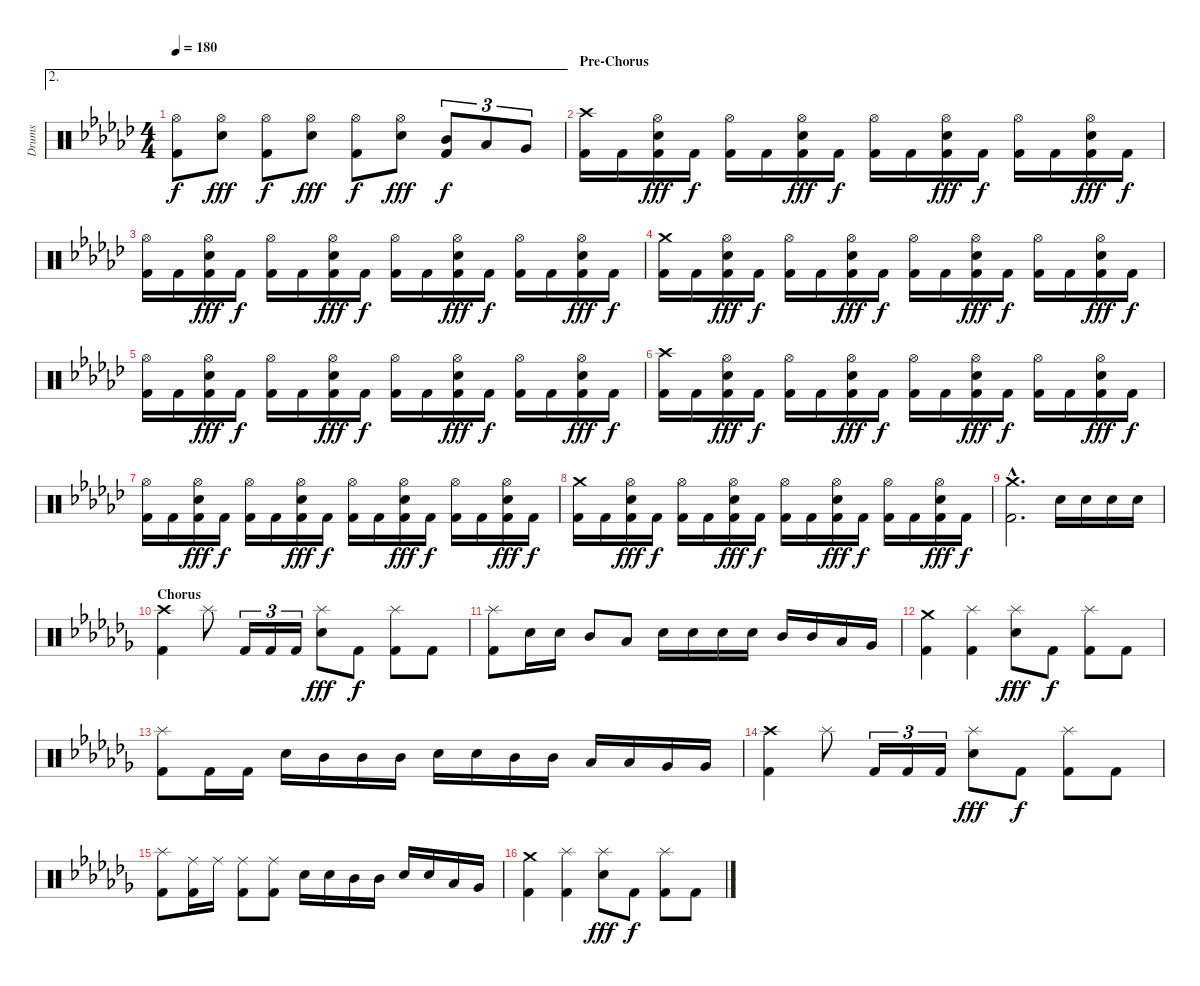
\track ("Drums" "Drums") {instrument percussion}
\staff {score}
\articulation defaults
\ae 2
\ts (4 4)
\tempo 180
\clef neutral
\ks ebminor
("Hi-Hat (open)" "Kick (hit) 2").8{dy f} ("Hi-Hat (open)" "Snare (hit) 2").8{dy fff} ("Hi-Hat (open)" "Kick (hit) 2").8{dy f} ("Hi-Hat (open)" "Snare (hit) 2").8{dy fff} ("Hi-Hat (open)" "Kick (hit) 2").8{dy f} ("Hi-Hat (open)" "Snare (hit) 2").8{dy fff} ("Mid Tom (hit)" "Kick (hit) 2").8{tu (3 2) dy f} "Low Tom (hit)".8{tu (3 2)} "Very Low Tom (hit)".8{tu (3 2)} |
\section ("" "Pre-Chorus")
("Crash high (hit)" "Kick (hit) 2").16 "Kick (hit) 2".16 ("Hi-Hat (open)" "Snare (hit) 2" "Kick (hit) 2").16{dy fff} "Kick (hit) 2".16{dy f} ("Hi-Hat (open)" "Kick (hit) 2").16 "Kick (hit) 2".16 ("Hi-Hat (open)" "Snare (hit) 2" "Kick (hit) 2").16{dy fff} "Kick (hit) 2".16{dy f} ("Hi-Hat (open)" "Kick (hit) 2").16 "Kick (hit) 2".16 ("Hi-Hat (open)" "Snare (hit) 2" "Kick (hit) 2").16{dy fff} "Kick (hit) 2".16{dy f} ("Hi-Hat (open)" "Kick (hit) 2").16 "Kick (hit) 2".16 ("Hi-Hat (open)" "Snare (hit) 2" "Kick (hit) 2").16{dy fff} "Kick (hit) 2".16{dy f} |
("Hi-Hat (open)" "Kick (hit) 2").16 "Kick (hit) 2".16 ("Hi-Hat (open)" "Snare (hit) 2" "Kick (hit) 2").16{dy fff} "Kick (hit) 2".16{dy f} ("Hi-Hat (open)" "Kick (hit) 2").16 "Kick (hit) 2".16 ("Hi-Hat (open)" "Snare (hit) 2" "Kick (hit) 2").16{dy fff} "Kick (hit) 2".16{dy f} ("Hi-Hat (open)" "Kick (hit) 2").16 "Kick (hit) 2".16 ("Hi-Hat (open)" "Snare (hit) 2" "Kick (hit) 2").16{dy fff} "Kick (hit) 2".16{dy f} ("Hi-Hat (open)" "Kick (hit) 2").16 "Kick (hit) 2".16 ("Hi-Hat (open)" "Snare (hit) 2" "Kick (hit) 2").16{dy fff} "Kick (hit) 2".16{dy f} |
("Crash medium (hit)" "Kick (hit) 2").16 "Kick (hit) 2".16 ("Hi-Hat (open)" "Snare (hit) 2" "Kick (hit) 2").16{dy fff} "Kick (hit) 2".16{dy f} ("Hi-Hat (open)" "Kick (hit) 2").16 "Kick (hit) 2".16 ("Hi-Hat (open)" "Snare (hit) 2" "Kick (hit) 2").16{dy fff} "Kick (hit) 2".16{dy f} ("Hi-Hat (open)" "Kick (hit) 2").16 "Kick (hit) 2".16 ("Hi-Hat (open)" "Snare (hit) 2" "Kick (hit) 2").16{dy fff} "Kick (hit) 2".16{dy f} ("Hi-Hat (open)" "Kick (hit) 2").16 "Kick (hit) 2".16 ("Hi-Hat (open)" "Snare (hit) 2" "Kick (hit) 2").16{dy fff} "Kick (hit) 2".16{dy f} |
("Hi-Hat (open)" "Kick (hit) 2").16 "Kick (hit) 2".16 ("Hi-Hat (open)" "Snare (hit) 2" "Kick (hit) 2").16{dy fff} "Kick (hit) 2".16{dy f} ("Hi-Hat (open)" "Kick (hit) 2").16 "Kick (hit) 2".16 ("Hi-Hat (open)" "Snare (hit) 2" "Kick (hit) 2").16{dy fff} "Kick (hit) 2".16{dy f} ("Hi-Hat (open)" "Kick (hit) 2").16 "Kick (hit) 2".16 ("Hi-Hat (open)" "Snare (hit) 2" "Kick (hit) 2").16{dy fff} "Kick (hit) 2".16{dy f} ("Hi-Hat (open)" "Kick (hit) 2").16 "Kick (hit) 2".16 ("Hi-Hat (open)" "Snare (hit) 2" "Kick (hit) 2").16{dy fff} "Kick (hit) 2".16{dy f} |
("Crash high (hit)" "Kick (hit) 2").16 "Kick (hit) 2".16 ("Hi-Hat (open)" "Snare (hit) 2" "Kick (hit) 2").16{dy fff} "Kick (hit) 2".16{dy f} ("Hi-Hat (open)" "Kick (hit) 2").16 "Kick (hit) 2".16 ("Hi-Hat (open)" "Snare (hit) 2" "Kick (hit) 2").16{dy fff} "Kick (hit) 2".16{dy f} ("Hi-Hat (open)" "Kick (hit) 2").16 "Kick (hit) 2".16 ("Hi-Hat (open)" "Snare (hit) 2" "Kick (hit) 2").16{dy fff} "Kick (hit) 2".16{dy f} ("Hi-Hat (open)" "Kick (hit) 2").16 "Kick (hit) 2".16 ("Hi-Hat (open)" "Snare (hit) 2" "Kick (hit) 2").16{dy fff} "Kick (hit) 2".16{dy f} |
("Hi-Hat (open)" "Kick (hit) 2").16 "Kick (hit) 2".16 ("Hi-Hat (open)" "Snare (hit) 2" "Kick (hit) 2").16{dy fff} "Kick (hit) 2".16{dy f} ("Hi-Hat (open)" "Kick (hit) 2").16 "Kick (hit) 2".16 ("Hi-Hat (open)" "Snare (hit) 2" "Kick (hit) 2").16{dy fff} "Kick (hit) 2".16{dy f} ("Hi-Hat (open)" "Kick (hit) 2").16 "Kick (hit) 2".16 ("Hi-Hat (open)" "Snare (hit) 2" "Kick (hit) 2").16{dy fff} "Kick (hit) 2".16{dy f} ("Hi-Hat (open)" "Kick (hit) 2").16 "Kick (hit) 2".16 ("Hi-Hat (open)" "Snare (hit) 2" "Kick (hit) 2").16{dy fff} "Kick (hit) 2".16{dy f} |
("Crash medium (hit)" "Kick (hit) 2").16 "Kick (hit) 2".16 ("Hi-Hat (open)" "Snare (hit) 2" "Kick (hit) 2").16{dy fff} "Kick (hit) 2".16{dy f} ("Hi-Hat (open)" "Kick (hit) 2").16 "Kick (hit) 2".16 ("Hi-Hat (open)" "Snare (hit) 2" "Kick (hit) 2").16{dy fff} "Kick (hit) 2".16{dy f} ("Hi-Hat (open)" "Kick (hit) 2").16 "Kick (hit) 2".16 ("Hi-Hat (open)" "Snare (hit) 2" "Kick (hit) 2").16{dy fff} "Kick (hit) 2".16{dy f} ("Hi-Hat (open)" "Kick (hit) 2").16 "Kick (hit) 2".16 ("Hi-Hat (open)" "Snare (hit) 2" "Kick (hit) 2").16{dy fff} "Kick (hit) 2".16{dy f} |
("Crash medium (hit)"{hac} "Kick (hit) 2"{hac}).2{d} "Snare (hit) 2".16 "Snare (hit) 2".16 "Snare (hit) 2".16 "Snare (hit) 2".16 |
\section ("" "Chorus")
\ks abminor
("Crash high (hit)" "Kick (hit) 2").4 "Splash (hit)".8 "Kick (hit) 2".16{tu (3 2)} "Kick (hit) 2".16{tu (3 2)} "Kick (hit) 2".16{tu (3 2)} ("Splash (hit)" "Snare (hit) 2").8{dy fff} "Kick (hit) 2".8{dy f} ("Splash (hit)" "Kick (hit) 2").8 "Kick (hit) 2".8 |
("Splash (hit)" "Kick (hit) 2").8 "Snare (hit) 2".16 "Snare (hit) 2".16 "Mid Tom (hit)".8 "Low Tom (hit)".8 "Snare (hit) 2".16 "Snare (hit) 2".16 "Snare (hit) 2".16 "Snare (hit) 2".16 "Mid Tom (hit)".16 "Mid Tom (hit)".16 "Low Tom (hit)".16 "Very Low Tom (hit)".16 |
("Crash medium (hit)" "Kick (hit) 2").4 ("Splash (hit)" "Kick (hit) 2").4 ("Splash (hit)" "Snare (hit) 2").8{dy fff} "Kick (hit) 2".8{dy f} ("Splash (hit)" "Kick (hit) 2").8 "Kick (hit) 2".8 |
("Splash (hit)" "Kick (hit) 2").8 "Kick (hit) 2".16 "Kick (hit) 2".16 "Snare (hit) 2".16 "Mid Tom (hit)".16 "Mid Tom (hit)".16 "Mid Tom (hit)".16 "Snare (hit) 2".16 "Snare (hit) 2".16 "Mid Tom (hit)".16 "Mid Tom (hit)".16 "Low Tom (hit)".16 "Low Tom (hit)".16 "Very Low Tom (hit)".16 "Very Low Tom (hit)".16 |
("Crash high (hit)" "Kick (hit) 2").4 "Splash (hit)".8 "Kick (hit) 2".16{tu (3 2)} "Kick (hit) 2".16{tu (3 2)} "Kick (hit) 2".16{tu (3 2)} ("Splash (hit)" "Snare (hit) 2").8{dy fff} "Kick (hit) 2".8{dy f} ("Splash (hit)" "Kick (hit) 2").8 "Kick (hit) 2".8 |
("Splash (hit)" "Kick (hit) 2").8 ("Ride (middle)" "Kick (hit) 2").16 "Ride (middle)".16 ("Ride (middle)" "Kick (hit) 2").8 ("Ride (middle)" "Kick (hit) 2").8 "Snare (hit) 2".16 "Snare (hit) 2".16 "Mid Tom (hit)".16 "Mid Tom (hit)".16 "Snare (hit) 2".16 "Snare (hit) 2".16 "Low Tom (hit)".16 "Very Low Tom (hit)".16 |
("Crash medium (hit)" "Kick (hit) 2").4 ("Splash (hit)" "Kick (hit) 2").4 ("Splash (hit)" "Snare (hit) 2").8{dy fff} "Kick (hit) 2".8{dy f} ("Splash (hit)" "Kick (hit) 2").8 "Kick (hit) 2".8
